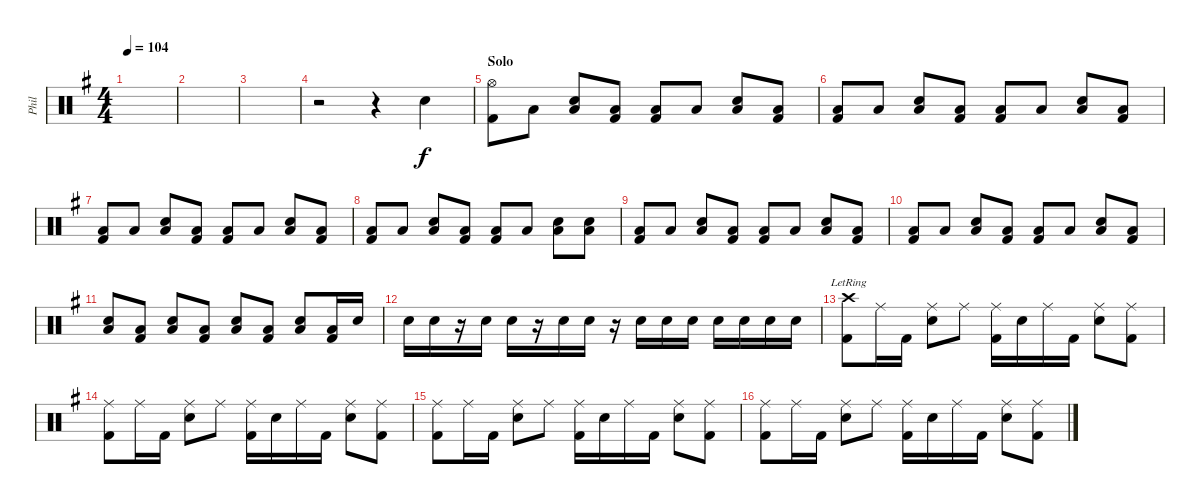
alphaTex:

\track ("Phil" "Phil") {instrument percussion}
\staff {score}
\articulation defaults
\ts (4 4)
\tempo 104
\clef neutral
\ks g
|
|
|
r.2 r.4 "Snare (hit) 2".4 |
\section ("" "Solo")
("Kick (hit) 2" "Hi-Hat (open)").8 "Low Floor Tom (hit)".8 ("Snare (hit) 2" "Low Floor Tom (hit)").8 ("Kick (hit) 2" "Low Floor Tom (hit)").8 ("Kick (hit) 2" "Low Floor Tom (hit)").8 "Low Floor Tom (hit)".8 ("Snare (hit) 2" "Low Floor Tom (hit)").8 ("Kick (hit) 2" "Low Floor Tom (hit)").8 |
("Kick (hit) 2" "Low Floor Tom (hit)").8 "Low Floor Tom (hit)".8 ("Snare (hit) 2" "Low Floor Tom (hit)").8 ("Kick (hit) 2" "Low Floor Tom (hit)").8 ("Kick (hit) 2" "Low Floor Tom (hit)").8 "Low Floor Tom (hit)".8 ("Snare (hit) 2" "Low Floor Tom (hit)").8 ("Kick (hit) 2" "Low Floor Tom (hit)").8 |
("Kick (hit) 2" "Low Floor Tom (hit)").8 "Low Floor Tom (hit)".8 ("Snare (hit) 2" "Low Floor Tom (hit)").8 ("Kick (hit) 2" "Low Floor Tom (hit)").8 ("Kick (hit) 2" "Low Floor Tom (hit)").8 "Low Floor Tom (hit)".8 ("Snare (hit) 2" "Low Floor Tom (hit)").8 ("Kick (hit) 2" "Low Floor Tom (hit)").8 |
("Kick (hit) 2" "Low Floor Tom (hit)").8 "Low Floor Tom (hit)".8 ("Snare (hit) 2" "Low Floor Tom (hit)").8 ("Kick (hit) 2" "Low Floor Tom (hit)").8 ("Kick (hit) 2" "Low Floor Tom (hit)").8 "Low Floor Tom (hit)".8 ("Snare (hit) 2" "Low Floor Tom (hit)").8 ("Snare (hit) 2" "Low Floor Tom (hit)").8 |
("Kick (hit) 2" "Low Floor Tom (hit)").8 "Low Floor Tom (hit)".8 ("Snare (hit) 2" "Low Floor Tom (hit)").8 ("Kick (hit) 2" "Low Floor Tom (hit)").8 ("Kick (hit) 2" "Low Floor Tom (hit)").8 "Low Floor Tom (hit)".8 ("Snare (hit) 2" "Low Floor Tom (hit)").8 ("Kick (hit) 2" "Low Floor Tom (hit)").8 |
("Kick (hit) 2" "Low Floor Tom (hit)").8 "Low Floor Tom (hit)".8 ("Snare (hit) 2" "Low Floor Tom (hit)").8 ("Kick (hit) 2" "Low Floor Tom (hit)").8 ("Kick (hit) 2" "Low Floor Tom (hit)").8 "Low Floor Tom (hit)".8 ("Snare (hit) 2" "Low Floor Tom (hit)").8 ("Kick (hit) 2" "Low Floor Tom (hit)").8 |
("Snare (hit) 2" "Low Floor Tom (hit)").8 ("Kick (hit) 2" "Low Floor Tom (hit)").8 ("Snare (hit) 2" "Low Floor Tom (hit)").8 ("Kick (hit) 2" "Low Floor Tom (hit)").8 ("Snare (hit) 2" "Low Floor Tom (hit)").8 ("Kick (hit) 2" "Low Floor Tom (hit)").8 ("Snare (hit) 2" "Low Floor Tom (hit)").8 ("Kick (hit) 2" "Low Floor Tom (hit)").16 "Snare (hit) 2".16 |
"Snare (hit) 2".16 "Snare (hit) 2".16 r.16 "Snare (hit) 2".16 "Snare (hit) 2".16 r.16 "Snare (hit) 2".16 "Snare (hit) 2".16 r.16 "Snare (hit) 2".16 "Snare (hit) 2".16 "Snare (hit) 2".16 "Snare (hit) 2".16 "Snare (hit) 2".16 "Snare (hit) 2".16 "Snare (hit) 2".16 |
("Kick (hit) 2" "Crash high (hit)"{lr}).8 "Ride (middle)".16 "Kick (hit) 2".16 ("Snare (hit) 2" "Ride (middle)").8 "Ride (middle)".8 ("Kick (hit) 2" "Ride (middle)").16 "Snare (hit) 2".16 "Ride (middle)".16 "Kick (hit) 2".16 ("Snare (hit) 2" "Ride (middle)").8 ("Kick (hit) 2" "Ride (middle)").8 |
("Kick (hit) 2" "Ride (middle)").8 "Ride (middle)".16 "Kick (hit) 2".16 ("Snare (hit) 2" "Ride (middle)").8 "Ride (middle)".8 ("Kick (hit) 2" "Ride (middle)").16 "Snare (hit) 2".16 "Ride (middle)".16 "Kick (hit) 2".16 ("Snare (hit) 2" "Ride (middle)").8 ("Kick (hit) 2" "Ride (middle)").8 |
("Kick (hit) 2" "Ride (middle)").8 "Ride (middle)".16 "Kick (hit) 2".16 ("Snare (hit) 2" "Ride (middle)").8 "Ride (middle)".8 ("Kick (hit) 2" "Ride (middle)").16 "Snare (hit) 2".16 "Ride (middle)".16 "Kick (hit) 2".16 ("Snare (hit) 2" "Ride (middle)").8 ("Kick (hit) 2" "Ride (middle)").8 |
("Kick (hit) 2" "Ride (middle)").8 "Ride (middle)".16 "Kick (hit) 2".16 ("Snare (hit) 2" "Ride (middle)").8 "Ride (middle)".8 ("Kick (hit) 2" "Ride (middle)").16 "Snare (hit) 2".16 "Ride (middle)".16 "Kick (hit) 2".16 ("Snare (hit) 2" "Ride (middle)").8 ("Kick (hit) 2" "Ride (middle)").8
